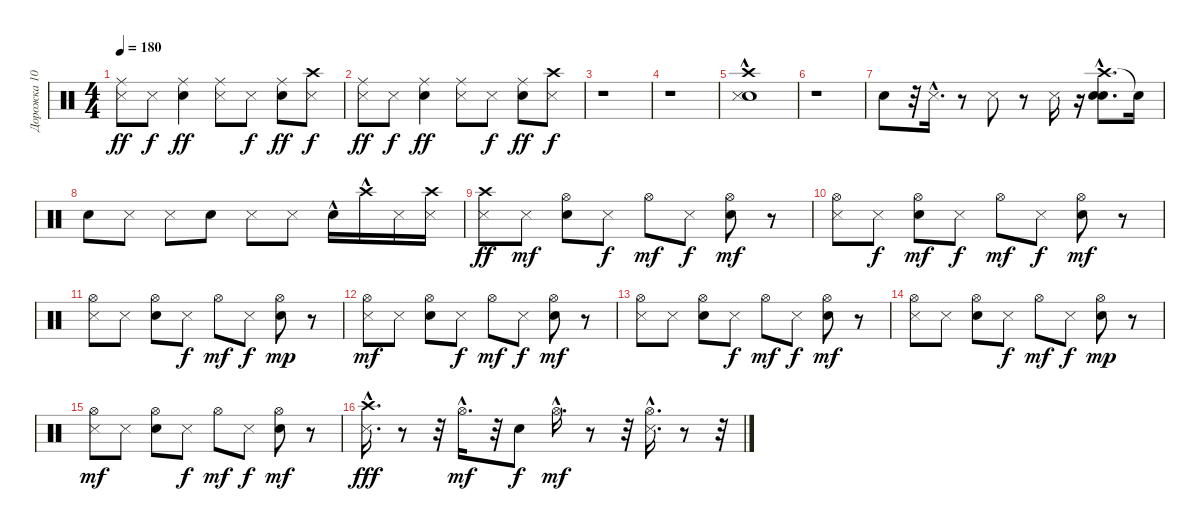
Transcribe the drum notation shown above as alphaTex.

\track ("Дорожка 10" "Дорожка 10") {instrument percussion}
\staff {score}
\articulation defaults
\ts (4 4)
\tempo 180
\clef neutral
\ks c
("Metronome (hit)" "Ride (middle)").8{dy ff} "Metronome (hit)".8{dy f} ("Snare (hit) 2" "Ride (middle)").4{dy ff} ("Metronome (hit)" "Ride (middle)").8 "Metronome (hit)".8{dy f} ("Snare (hit) 2" "Ride (middle)").8{dy ff} ("Metronome (hit)" "Crash high (hit)").8{dy f} |
("Metronome (hit)" "Ride (middle)").8{dy ff} "Metronome (hit)".8{dy f} ("Snare (hit) 2" "Ride (middle)").4{dy ff} ("Metronome (hit)" "Ride (middle)").8 "Metronome (hit)".8{dy f} ("Snare (hit) 2" "Ride (middle)").8{dy ff} ("Metronome (hit)" "Crash high (hit)").8{dy f} |
r.1 |
r.1 |
("Snare (hit) 2"{hac} "Metronome (hit)" "Crash high (hit)").1 |
r.1 |
"Snare (hit) 2".8 r.32 "Metronome (hit)"{hac}.16{d} r.8 "Metronome (hit)".8 r.8 "Metronome (hit)".16 r.16 ("Crash high (hit)"{hac} "Electric Snare (hit)"{hac} "Snare (hit) 2"{hac}).8{d} "Snare (hit)"{t}.16 |
"Snare (hit) 2".8 "Metronome (hit)".8 "Metronome (hit)".8 "Snare (hit) 2".8 "Metronome (hit)".8 "Metronome (hit)".8 "Snare (hit) 2"{hac}.16 "Crash high (hit)"{hac}.16 "Metronome (hit)".16 ("Crash high (hit)" "Metronome (hit)").16 |
("Crash high (hit)" "Metronome (hit)").8{dy ff} "Metronome (hit)".8{dy mf} ("Hi-Hat (open)" "Snare (hit) 2").8 "Metronome (hit)".8{dy f} "Hi-Hat (open)".8{dy mf} "Metronome (hit)".8{dy f} ("Hi-Hat (open)" "Snare (hit) 2").8{dy mf} r.8 |
("Hi-Hat (open)" "Metronome (hit)").8 "Metronome (hit)".8{dy f} ("Hi-Hat (open)" "Snare (hit) 2").8{dy mf} "Metronome (hit)".8{dy f} "Hi-Hat (open)".8{dy mf} "Metronome (hit)".8{dy f} ("Hi-Hat (open)" "Snare (hit) 2").8{dy mf} r.8 |
("Hi-Hat (open)" "Metronome (hit)").8 "Metronome (hit)".8 ("Hi-Hat (open)" "Snare (hit) 2").8 "Metronome (hit)".8{dy f} "Hi-Hat (open)".8{dy mf} "Metronome (hit)".8{dy f} ("Hi-Hat (open)" "Snare (hit) 2").8{dy mp} r.8 |
("Hi-Hat (open)" "Metronome (hit)").8{dy mf} "Metronome (hit)".8 ("Hi-Hat (open)" "Snare (hit) 2").8 "Metronome (hit)".8{dy f} "Hi-Hat (open)".8{dy mf} "Metronome (hit)".8{dy f} ("Hi-Hat (open)" "Snare (hit) 2").8{dy mf} r.8 |
("Hi-Hat (open)" "Metronome (hit)").8 "Metronome (hit)".8 ("Hi-Hat (open)" "Snare (hit) 2").8 "Metronome (hit)".8{dy f} "Hi-Hat (open)".8{dy mf} "Metronome (hit)".8{dy f} ("Hi-Hat (open)" "Snare (hit) 2").8{dy mf} r.8 |
("Hi-Hat (open)" "Metronome (hit)").8 "Metronome (hit)".8 ("Hi-Hat (open)" "Snare (hit) 2").8 "Metronome (hit)".8{dy f} "Hi-Hat (open)".8{dy mf} "Metronome (hit)".8{dy f} ("Hi-Hat (open)" "Snare (hit) 2").8{dy mp} r.8 |
("Hi-Hat (open)" "Metronome (hit)").8{dy mf} "Metronome (hit)".8 ("Hi-Hat (open)" "Snare (hit) 2").8 "Metronome (hit)".8{dy f} "Hi-Hat (open)".8{dy mf} "Metronome (hit)".8{dy f} ("Hi-Hat (open)" "Snare (hit) 2").8{dy mf} r.8 |
("Metronome (hit)"{hac} "Crash high (hit)").16{d dy fff} r.8 r.32 "Hi-Hat (open)"{hac}.16{d dy mf} r.32 "Snare (hit) 2".8{dy f} "Hi-Hat (open)"{hac}.16{d dy mf} r.8 r.32 ("Hi-Hat (open)"{hac} "Metronome (hit)").16{d} r.8 r.32
